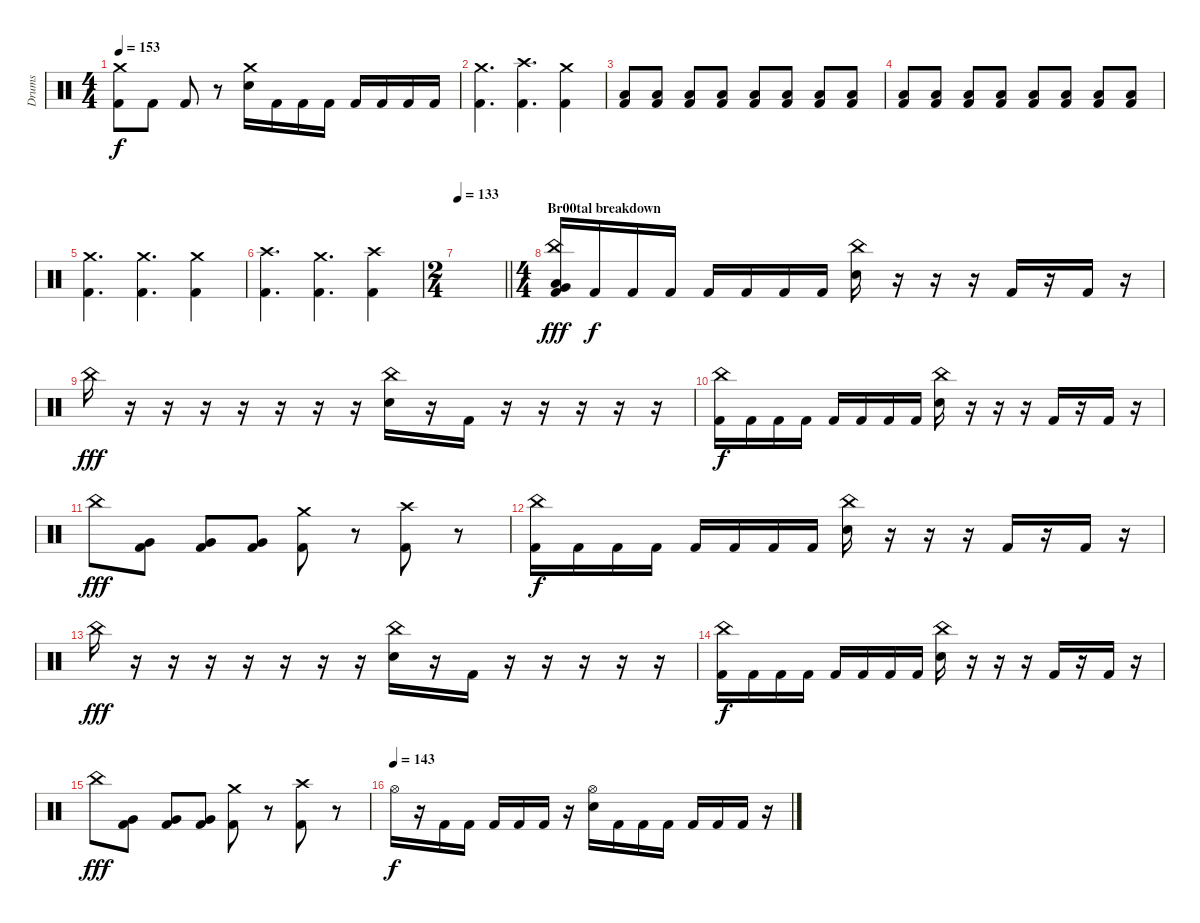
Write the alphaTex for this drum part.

\track ("Drums" "Drums") {instrument percussion}
\staff {score}
\articulation defaults
\ts (4 4)
\tempo 153
\clef neutral
\ks c
("Crash medium (hit)" "Kick (hit) 2").8{dy f} "Kick (hit) 2".8 "Kick (hit) 2".8 r.8 ("Crash medium (hit)" "Electric Snare (hit)").16 "Kick (hit) 2".16 "Kick (hit) 2".16 "Kick (hit) 2".16 "Kick (hit) 2".16 "Kick (hit) 2".16 "Kick (hit) 2".16 "Kick (hit) 2".16 |
("Crash medium (hit)" "Kick (hit) 2").4{d} ("Crash high (hit)" "Kick (hit) 2").4{d} ("Crash medium (hit)" "Kick (hit) 2").4 |
("Low Tom (hit)" "Kick (hit) 2").8 ("Low Tom (hit)" "Kick (hit) 2").8 ("Low Tom (hit)" "Kick (hit) 2").8 ("Low Tom (hit)" "Kick (hit) 2").8 ("Low Tom (hit)" "Kick (hit) 2").8 ("Low Tom (hit)" "Kick (hit) 2").8 ("Low Tom (hit)" "Kick (hit) 2").8 ("Low Tom (hit)" "Kick (hit) 2").8 |
("Low Tom (hit)" "Kick (hit) 2").8 ("Low Tom (hit)" "Kick (hit) 2").8 ("Low Tom (hit)" "Kick (hit) 2").8 ("Low Tom (hit)" "Kick (hit) 2").8 ("Low Tom (hit)" "Kick (hit) 2").8 ("Low Tom (hit)" "Kick (hit) 2").8 ("Low Tom (hit)" "Kick (hit) 2").8 ("Low Tom (hit)" "Kick (hit) 2").8 |
("Crash medium (hit)" "Kick (hit) 2").4{d} ("Crash medium (hit)" "Kick (hit) 2").4{d} ("Crash medium (hit)" "Kick (hit) 2").4 |
("Crash high (hit)" "Kick (hit) 2").4{d} ("Crash medium (hit)" "Kick (hit) 2").4{d} ("Crash high (hit)" "Kick (hit) 2").4 |
\ts (2 4)
\tempo 133
\barLineRight lightlight
|
\ts (4 4)
\section ("" "Br00tal breakdown")
("China (hit)" "Low Floor Tom (hit)" "Very Low Tom (hit)" "Kick (hit) 2").16{dy fff} "Kick (hit) 2".16{dy f} "Kick (hit) 2".16 "Kick (hit) 2".16 "Kick (hit) 2".16 "Kick (hit) 2".16 "Kick (hit) 2".16 "Kick (hit) 2".16 ("China (hit)" "Electric Snare (hit)").16 r.16 r.16 r.16 "Kick (hit) 2".16 r.16 "Kick (hit) 2".16 r.16 |
"China (hit)".16{dy fff} r.16 r.16 r.16 r.16 r.16 r.16 r.16 ("China (hit)" "Electric Snare (hit)").16 r.16 "Kick (hit) 2".16 r.16 r.16 r.16 r.16 r.16 |
("China (hit)" "Kick (hit) 2").16{dy f} "Kick (hit) 2".16 "Kick (hit) 2".16 "Kick (hit) 2".16 "Kick (hit) 2".16 "Kick (hit) 2".16 "Kick (hit) 2".16 "Kick (hit) 2".16 ("China (hit)" "Electric Snare (hit)").16 r.16 r.16 r.16 "Kick (hit) 2".16 r.16 "Kick (hit) 2".16 r.16 |
"China (hit)".8{dy fff} ("Very Low Tom (hit)" "Kick (hit) 2").8 ("Very Low Tom (hit)" "Kick (hit) 2").8 ("Very Low Tom (hit)" "Kick (hit) 2").8 ("Crash medium (hit)" "Kick (hit) 2").8 r.8 ("Crash high (hit)" "Kick (hit) 2").8 r.8 |
("China (hit)" "Kick (hit) 2").16{dy f} "Kick (hit) 2".16 "Kick (hit) 2".16 "Kick (hit) 2".16 "Kick (hit) 2".16 "Kick (hit) 2".16 "Kick (hit) 2".16 "Kick (hit) 2".16 ("China (hit)" "Electric Snare (hit)").16 r.16 r.16 r.16 "Kick (hit) 2".16 r.16 "Kick (hit) 2".16 r.16 |
"China (hit)".16{dy fff} r.16 r.16 r.16 r.16 r.16 r.16 r.16 ("China (hit)" "Electric Snare (hit)").16 r.16 "Kick (hit) 2".16 r.16 r.16 r.16 r.16 r.16 |
("China (hit)" "Kick (hit) 2").16{dy f} "Kick (hit) 2".16 "Kick (hit) 2".16 "Kick (hit) 2".16 "Kick (hit) 2".16 "Kick (hit) 2".16 "Kick (hit) 2".16 "Kick (hit) 2".16 ("China (hit)" "Electric Snare (hit)").16 r.16 r.16 r.16 "Kick (hit) 2".16 r.16 "Kick (hit) 2".16 r.16 |
"China (hit)".8{dy fff} ("Very Low Tom (hit)" "Kick (hit) 2").8 ("Very Low Tom (hit)" "Kick (hit) 2").8 ("Very Low Tom (hit)" "Kick (hit) 2").8 ("Crash medium (hit)" "Kick (hit) 2").8 r.8 ("Crash high (hit)" "Kick (hit) 2").8 r.8 |
\tempo (143)
"Hi-Hat (open)".16{dy f} r.16 "Kick (hit) 2".16 "Kick (hit) 2".16 "Kick (hit) 2".16 "Kick (hit) 2".16 "Kick (hit) 2".16 r.16 ("Hi-Hat (open)" "Electric Snare (hit)").16 "Kick (hit) 2".16 "Kick (hit) 2".16 "Kick (hit) 2".16 "Kick (hit) 2".16 "Kick (hit) 2".16 "Kick (hit) 2".16 r.16
